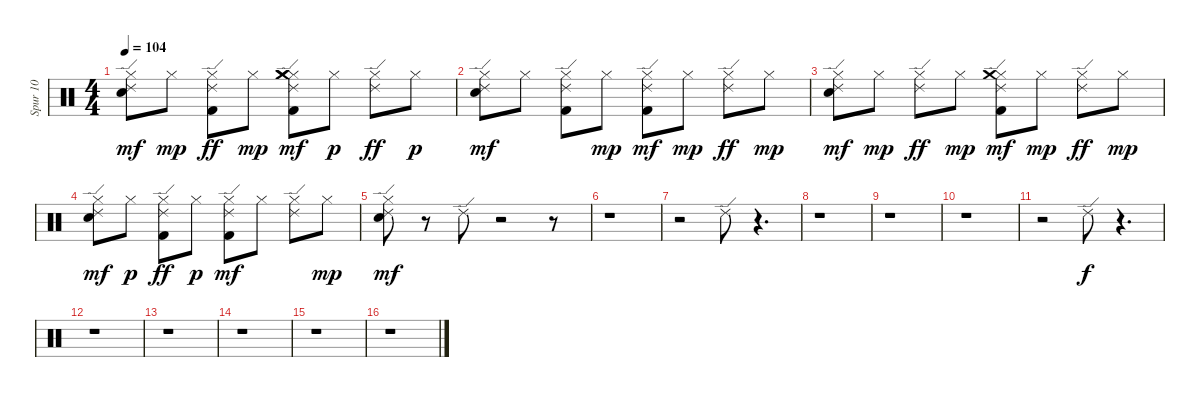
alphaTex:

\track ("Spur 10" "Spur 10") {instrument percussion}
\staff {score}
\articulation defaults
\ts (4 4)
\tempo 104
\clef neutral
\ks c
("Snare (hit) 2" "Ride (edge) 2" "Hi-Hat (closed)").8{dy mf} "Hi-Hat (closed)".8{dy mp} ("Kick (hit) 2" "Ride (edge) 2" "Hi-Hat (closed)").8{dy ff} "Hi-Hat (closed)".8{dy mp} ("Kick (hit) 2" "Ride (edge) 2" "Hi-Hat (closed)" "Crash medium (hit)" "Crash medium (hit)").8{dy mf} "Hi-Hat (closed)".8{dy p} ("Ride (edge) 2" "Hi-Hat (closed)").8{dy ff} "Hi-Hat (closed)".8{dy p} |
("Snare (hit) 2" "Ride (edge) 2" "Hi-Hat (closed)").8{dy mf} "Hi-Hat (closed)".8 ("Kick (hit) 2" "Ride (edge) 2" "Hi-Hat (closed)").8 "Hi-Hat (closed)".8{dy mp} ("Kick (hit) 2" "Ride (edge) 2" "Hi-Hat (closed)").8{dy mf} "Hi-Hat (closed)".8{dy mp} ("Ride (edge) 2" "Hi-Hat (closed)").8{dy ff} "Hi-Hat (closed)".8{dy mp} |
("Snare (hit) 2" "Ride (edge) 2" "Hi-Hat (closed)").8{dy mf} "Hi-Hat (closed)".8{dy mp} ("Ride (edge) 2" "Hi-Hat (closed)").8{dy ff} "Hi-Hat (closed)".8{dy mp} ("Kick (hit) 2" "Ride (edge) 2" "Hi-Hat (closed)" "Crash medium (hit)").8{dy mf} "Hi-Hat (closed)".8{dy mp} ("Ride (edge) 2" "Hi-Hat (closed)").8{dy ff} "Hi-Hat (closed)".8{dy mp} |
("Snare (hit) 2" "Ride (edge) 2" "Hi-Hat (closed)").8{dy mf} "Hi-Hat (closed)".8{dy p} ("Kick (hit) 2" "Ride (edge) 2" "Hi-Hat (closed)").8{dy ff} "Hi-Hat (closed)".8{dy p} ("Kick (hit) 2" "Ride (edge) 2" "Hi-Hat (closed)").8{dy mf} "Hi-Hat (closed)".8 ("Ride (edge) 2" "Hi-Hat (closed)").8 "Hi-Hat (closed)".8{dy mp} |
("Snare (hit) 2" "Ride (edge) 2" "Hi-Hat (closed)").8{dy mf} r.8 "Ride (edge) 2".8 r.2 r.8 |
r.1 |
r.2 "Ride (edge) 2".8 r.4{d} |
r.1 |
r.1 |
r.1 |
r.2 "Ride (edge) 2".8{dy f} r.4{d} |
r.1 |
r.1 |
r.1 |
r.1 |
r.1
